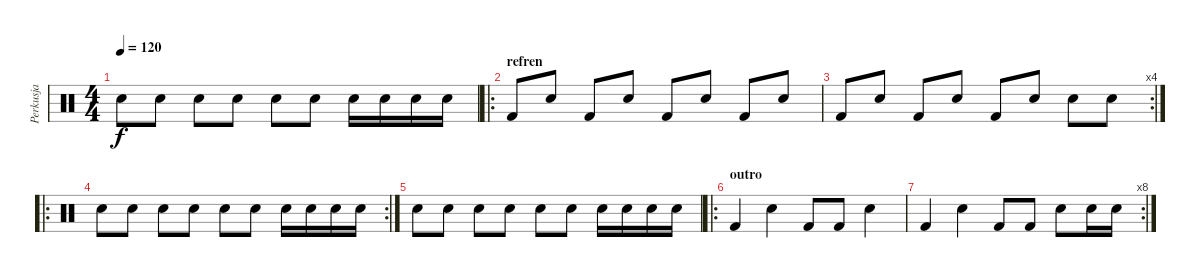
\track ("Perkusja" "Perkusja") {instrument percussion}
\staff {score}
\articulation defaults
\ts (4 4)
\tempo 120
\clef neutral
\ks c "Electric Snare (hit)".8{dy f} "Electric Snare (hit)".8 "Electric Snare (hit)".8 "Electric Snare (hit)".8 "Electric Snare (hit)".8 "Electric Snare (hit)".8 "Electric Snare (hit)".16 "Electric Snare (hit)".16 "Electric Snare (hit)".16 "Electric Snare (hit)".16
|
\ro
\section ("" "refren")
"Kick (hit) 2".8 "Electric Snare (hit)".8 "Kick (hit) 2".8 "Electric Snare (hit)".8 "Kick (hit) 2".8 "Electric Snare (hit)".8 "Kick (hit) 2".8 "Electric Snare (hit)".8 |
\rc 4 "Kick (hit) 2".8 "Electric Snare (hit)".8 "Kick (hit) 2".8 "Electric Snare (hit)".8 "Kick (hit) 2".8 "Electric Snare (hit)".8 "Electric Snare (hit)".8 "Electric Snare (hit)".8
|
\ro
\rc 2 "Electric Snare (hit)".8 "Electric Snare (hit)".8 "Electric Snare (hit)".8 "Electric Snare (hit)".8 "Electric Snare (hit)".8 "Electric Snare (hit)".8 "Electric Snare (hit)".16 "Electric Snare (hit)".16 "Electric Snare (hit)".16 "Electric Snare (hit)".16
|
"Electric Snare (hit)".8 "Electric Snare (hit)".8 "Electric Snare (hit)".8 "Electric Snare (hit)".8 "Electric Snare (hit)".8 "Electric Snare (hit)".8 "Electric Snare (hit)".16 "Electric Snare (hit)".16 "Electric Snare (hit)".16 "Electric Snare (hit)".16 |
\ro
\section ("" "outro")
"Kick (hit) 2".4 "Electric Snare (hit)".4 "Kick (hit) 2".8 "Kick (hit) 2".8 "Electric Snare (hit)".4 |
\rc 8 "Kick (hit) 2".4 "Electric Snare (hit)".4 "Kick (hit) 2".8 "Kick (hit) 2".8 "Electric Snare (hit)".8 "Electric Snare (hit)".16 "Electric Snare (hit)".16
